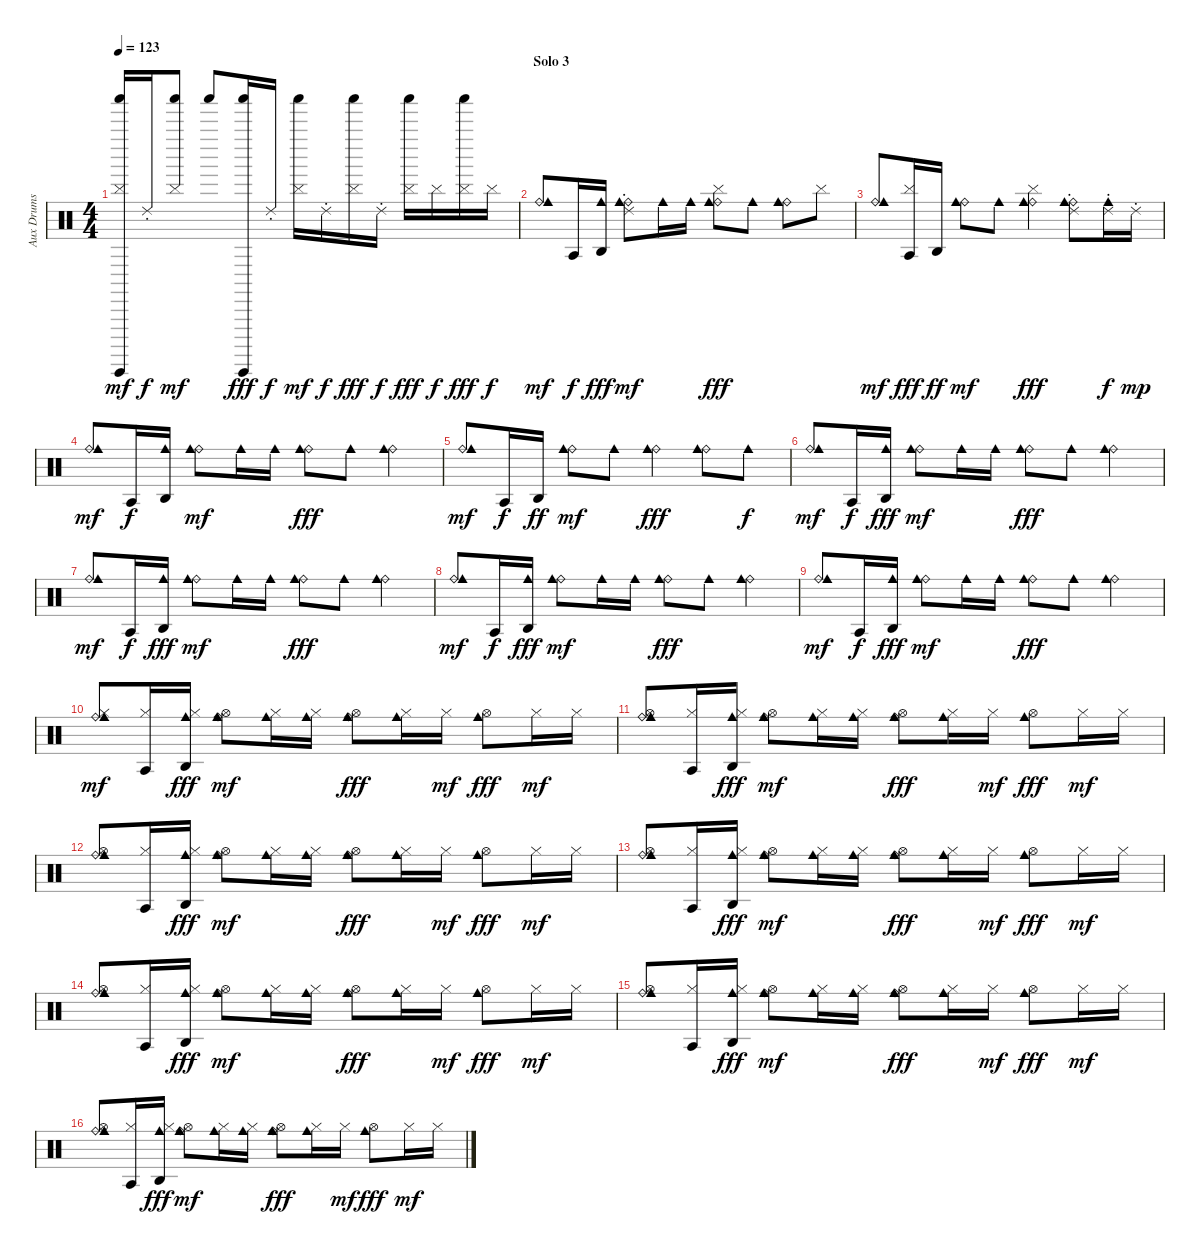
\track ("Aux Drums" "Aux Drums") {instrument percussion}
\staff {score}
\articulation defaults
\ts (4 4)
\tempo 123
\clef neutral
\ks c
("Cymbal (hit)" "Shaker (hit)" "Guiro (hit)").16{dy mf} "Ride (choke) 2".16{dy f} ("Cymbal (hit)" "Shaker (hit)").8{dy mf} "Shaker (hit)".8 ("Shaker (hit)" "Guiro (hit)").16{dy fff} "Ride (choke) 2".16{dy f} ("Cymbal (hit)" "Shaker (hit)").16{dy mf} "Ride (choke) 2".16{dy f} ("Cymbal (hit)" "Shaker (hit)").16{dy fff} "Ride (choke) 2".16{dy f} ("Cymbal (hit)" "Shaker (hit)").16{dy fff} "Cymbal (hit)".16{dy f} ("Cymbal (hit)" "Shaker (hit)").16{dy fff} "Cymbal (hit)".16{dy f} |
\section ("" "Solo 3")
("Ride (bell)" "Cowbell medium (hit)").8{dy mf} "Agogo tow (hit)".16{dy f} ("Agogo high (hit)" "Cowbell medium (hit)").16{dy fff} ("Ride (choke) 2" "Ride (bell)" "Cowbell medium (hit)").8{dy mf} "Cowbell medium (hit)".16 "Cowbell medium (hit)".16 ("Cymbal (hit)" "Ride (bell)" "Cowbell medium (hit)").8{dy fff} "Cowbell medium (hit)".8 ("Ride (bell)" "Cowbell medium (hit)").8 "Cymbal (hit)".8 |
("Ride (bell)" "Cowbell medium (hit)").8{dy mf} ("Cymbal (hit)" "Agogo tow (hit)").16{dy fff} "Agogo high (hit)".16{dy ff} ("Ride (bell)" "Cowbell medium (hit)").8{dy mf} "Cowbell medium (hit)".8 ("Cymbal (hit)" "Ride (bell)" "Cowbell medium (hit)").4{dy fff} ("Ride (choke) 2" "Ride (bell)" "Cowbell medium (hit)").8 ("Ride (choke) 2" "Cowbell medium (hit)").16{dy f} "Ride (choke) 2".16{dy mp} |
("Ride (bell)" "Cowbell medium (hit)").8{dy mf} "Agogo tow (hit)".16{dy f} ("Agogo high (hit)" "Cowbell medium (hit)").16 ("Ride (bell)" "Cowbell medium (hit)").8{dy mf} "Cowbell medium (hit)".16 "Cowbell medium (hit)".16 ("Ride (bell)" "Cowbell medium (hit)").8{dy fff} "Cowbell medium (hit)".8 ("Ride (bell)" "Cowbell medium (hit)").4 |
("Ride (bell)" "Cowbell medium (hit)").8{dy mf} "Agogo tow (hit)".16{dy f} "Agogo high (hit)".16{dy ff} ("Ride (bell)" "Cowbell medium (hit)").8{dy mf} "Cowbell medium (hit)".8 ("Ride (bell)" "Cowbell medium (hit)").4{dy fff} ("Ride (bell)" "Cowbell medium (hit)").8 "Cowbell medium (hit)".8{dy f} |
("Ride (bell)" "Cowbell medium (hit)").8{dy mf} "Agogo tow (hit)".16{dy f} ("Agogo high (hit)" "Cowbell medium (hit)").16{dy fff} ("Ride (bell)" "Cowbell medium (hit)").8{dy mf} "Cowbell medium (hit)".16 "Cowbell medium (hit)".16 ("Ride (bell)" "Cowbell medium (hit)").8{dy fff} "Cowbell medium (hit)".8 ("Ride (bell)" "Cowbell medium (hit)").4 |
("Ride (bell)" "Cowbell medium (hit)").8{dy mf} "Agogo tow (hit)".16{dy f} ("Agogo high (hit)" "Cowbell medium (hit)").16{dy fff} ("Ride (bell)" "Cowbell medium (hit)").8{dy mf} "Cowbell medium (hit)".16 "Cowbell medium (hit)".16 ("Ride (bell)" "Cowbell medium (hit)").8{dy fff} "Cowbell medium (hit)".8 ("Ride (bell)" "Cowbell medium (hit)").4 |
("Ride (bell)" "Cowbell medium (hit)").8{dy mf} "Agogo tow (hit)".16{dy f} ("Agogo high (hit)" "Cowbell medium (hit)").16{dy fff} ("Ride (bell)" "Cowbell medium (hit)").8{dy mf} "Cowbell medium (hit)".16 "Cowbell medium (hit)".16 ("Ride (bell)" "Cowbell medium (hit)").8{dy fff} "Cowbell medium (hit)".8 ("Ride (bell)" "Cowbell medium (hit)").4 |
("Ride (bell)" "Cowbell medium (hit)").8{dy mf} "Agogo tow (hit)".16{dy f} ("Agogo high (hit)" "Cowbell medium (hit)").16{dy fff} ("Ride (bell)" "Cowbell medium (hit)").8{dy mf} "Cowbell medium (hit)".16 "Cowbell medium (hit)".16 ("Ride (bell)" "Cowbell medium (hit)").8{dy fff} "Cowbell medium (hit)".8 ("Ride (bell)" "Cowbell medium (hit)").4 |
("Hi-Hat (closed)" "Ride (bell)" "Cowbell medium (hit)").8{dy mf} ("Hi-Hat (closed)" "Agogo tow (hit)").16 ("Hi-Hat (closed)" "Agogo high (hit)" "Cowbell medium (hit)").16{dy fff} ("Hi-Hat (open)" "Ride (bell)" "Cowbell medium (hit)").8{dy mf} ("Hi-Hat (closed)" "Cowbell medium (hit)").16 ("Hi-Hat (closed)" "Cowbell medium (hit)").16 ("Hi-Hat (open)" "Ride (bell)" "Cowbell medium (hit)").8{dy fff} ("Hi-Hat (closed)" "Cowbell medium (hit)").16 "Hi-Hat (closed)".16{dy mf} ("Hi-Hat (open)" "Cowbell medium (hit)").8{dy fff} "Hi-Hat (closed)".16{dy mf} "Hi-Hat (closed)".16 |
("Hi-Hat (open)" "Ride (bell)" "Cowbell medium (hit)").8 ("Hi-Hat (closed)" "Agogo tow (hit)").16 ("Hi-Hat (closed)" "Agogo high (hit)" "Cowbell medium (hit)").16{dy fff} ("Hi-Hat (open)" "Ride (bell)" "Cowbell medium (hit)").8{dy mf} ("Hi-Hat (closed)" "Cowbell medium (hit)").16 ("Hi-Hat (closed)" "Cowbell medium (hit)").16 ("Hi-Hat (open)" "Ride (bell)" "Cowbell medium (hit)").8{dy fff} ("Hi-Hat (closed)" "Cowbell medium (hit)").16 "Hi-Hat (closed)".16{dy mf} ("Hi-Hat (open)" "Cowbell medium (hit)").8{dy fff} "Hi-Hat (closed)".16{dy mf} "Hi-Hat (closed)".16 |
("Hi-Hat (open)" "Ride (bell)" "Cowbell medium (hit)").8 ("Hi-Hat (closed)" "Agogo tow (hit)").16 ("Hi-Hat (closed)" "Agogo high (hit)" "Cowbell medium (hit)").16{dy fff} ("Hi-Hat (open)" "Ride (bell)" "Cowbell medium (hit)").8{dy mf} ("Hi-Hat (closed)" "Cowbell medium (hit)").16 ("Hi-Hat (closed)" "Cowbell medium (hit)").16 ("Hi-Hat (open)" "Ride (bell)" "Cowbell medium (hit)").8{dy fff} ("Hi-Hat (closed)" "Cowbell medium (hit)").16 "Hi-Hat (closed)".16{dy mf} ("Hi-Hat (open)" "Cowbell medium (hit)").8{dy fff} "Hi-Hat (closed)".16{dy mf} "Hi-Hat (closed)".16 |
("Hi-Hat (open)" "Ride (bell)" "Cowbell medium (hit)").8 ("Hi-Hat (closed)" "Agogo tow (hit)").16 ("Hi-Hat (closed)" "Agogo high (hit)" "Cowbell medium (hit)").16{dy fff} ("Hi-Hat (open)" "Ride (bell)" "Cowbell medium (hit)").8{dy mf} ("Hi-Hat (closed)" "Cowbell medium (hit)").16 ("Hi-Hat (closed)" "Cowbell medium (hit)").16 ("Hi-Hat (open)" "Ride (bell)" "Cowbell medium (hit)").8{dy fff} ("Hi-Hat (closed)" "Cowbell medium (hit)").16 "Hi-Hat (closed)".16{dy mf} ("Hi-Hat (open)" "Cowbell medium (hit)").8{dy fff} "Hi-Hat (closed)".16{dy mf} "Hi-Hat (closed)".16 |
("Hi-Hat (open)" "Ride (bell)" "Cowbell medium (hit)").8 ("Hi-Hat (closed)" "Agogo tow (hit)").16 ("Hi-Hat (closed)" "Agogo high (hit)" "Cowbell medium (hit)").16{dy fff} ("Hi-Hat (open)" "Ride (bell)" "Cowbell medium (hit)").8{dy mf} ("Hi-Hat (closed)" "Cowbell medium (hit)").16 ("Hi-Hat (closed)" "Cowbell medium (hit)").16 ("Hi-Hat (open)" "Ride (bell)" "Cowbell medium (hit)").8{dy fff} ("Hi-Hat (closed)" "Cowbell medium (hit)").16 "Hi-Hat (closed)".16{dy mf} ("Hi-Hat (open)" "Cowbell medium (hit)").8{dy fff} "Hi-Hat (closed)".16{dy mf} "Hi-Hat (closed)".16 |
("Hi-Hat (open)" "Ride (bell)" "Cowbell medium (hit)").8 ("Hi-Hat (closed)" "Agogo tow (hit)").16 ("Hi-Hat (closed)" "Agogo high (hit)" "Cowbell medium (hit)").16{dy fff} ("Hi-Hat (open)" "Ride (bell)" "Cowbell medium (hit)").8{dy mf} ("Hi-Hat (closed)" "Cowbell medium (hit)").16 ("Hi-Hat (closed)" "Cowbell medium (hit)").16 ("Hi-Hat (open)" "Ride (bell)" "Cowbell medium (hit)").8{dy fff} ("Hi-Hat (closed)" "Cowbell medium (hit)").16 "Hi-Hat (closed)".16{dy mf} ("Hi-Hat (open)" "Cowbell medium (hit)").8{dy fff} "Hi-Hat (closed)".16{dy mf} "Hi-Hat (closed)".16 |
("Hi-Hat (open)" "Ride (bell)" "Cowbell medium (hit)").8 ("Hi-Hat (closed)" "Agogo tow (hit)").16 ("Hi-Hat (closed)" "Agogo high (hit)" "Cowbell medium (hit)").16{dy fff} ("Hi-Hat (open)" "Ride (bell)" "Cowbell medium (hit)").8{dy mf} ("Hi-Hat (closed)" "Cowbell medium (hit)").16 ("Hi-Hat (closed)" "Cowbell medium (hit)").16 ("Hi-Hat (open)" "Ride (bell)" "Cowbell medium (hit)").8{dy fff} ("Hi-Hat (closed)" "Cowbell medium (hit)").16 "Hi-Hat (closed)".16{dy mf} ("Hi-Hat (open)" "Cowbell medium (hit)").8{dy fff} "Hi-Hat (closed)".16{dy mf} "Hi-Hat (closed)".16
